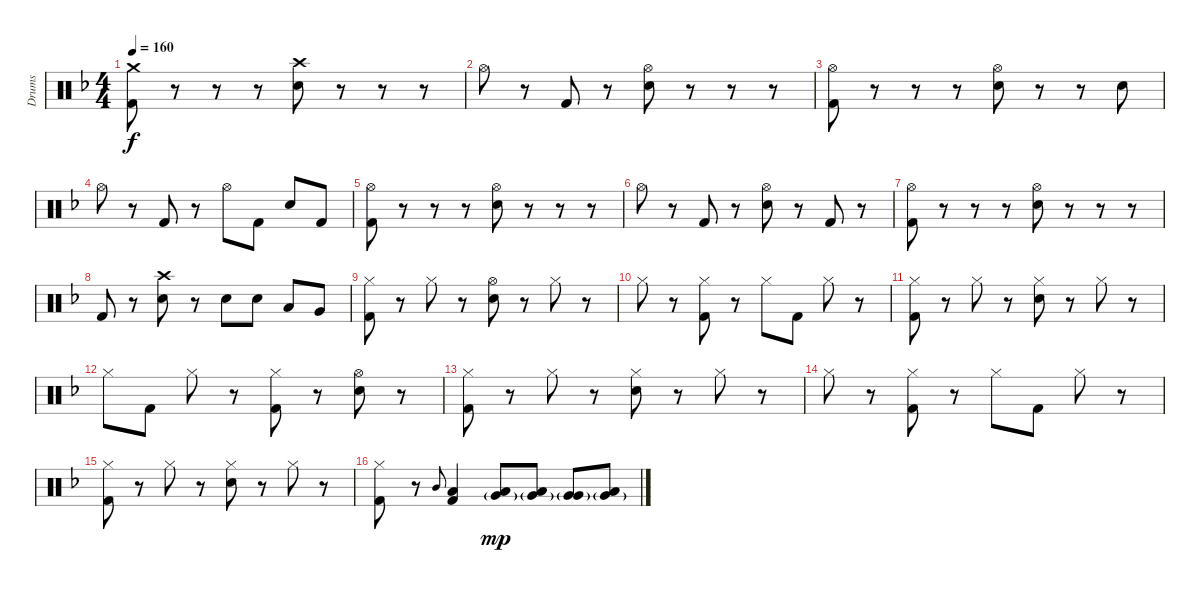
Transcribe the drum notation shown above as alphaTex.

\track ("Drums" "Drums") {instrument percussion}
\staff {score}
\articulation defaults
\ts (4 4)
\tempo 160
\clef neutral
\ks dminor
("Crash medium (hit)" "Kick (hit) 2").8{dy f} r.8 r.8 r.8 ("Crash high (hit)" "Electric Snare (hit)").8 r.8 r.8 r.8 |
"Hi-Hat (open)".8 r.8 "Kick (hit) 2".8 r.8 ("Hi-Hat (open)" "Electric Snare (hit)").8 r.8 r.8 r.8 |
("Hi-Hat (open)" "Kick (hit) 2").8 r.8 r.8 r.8 ("Hi-Hat (open)" "Electric Snare (hit)").8 r.8 r.8 "Electric Snare (hit)".8 |
"Hi-Hat (open)".8 r.8 "Kick (hit) 2".8 r.8 "Hi-Hat (open)".8 "Kick (hit) 2".8 "Electric Snare (hit)".8 "Kick (hit) 2".8 |
("Hi-Hat (open)" "Kick (hit) 2").8 r.8 r.8 r.8 ("Hi-Hat (open)" "Electric Snare (hit)").8 r.8 r.8 r.8 |
"Hi-Hat (open)".8 r.8 "Kick (hit) 2".8 r.8 ("Hi-Hat (open)" "Electric Snare (hit)").8 r.8 "Kick (hit) 2".8 r.8 |
("Hi-Hat (open)" "Kick (hit) 2").8 r.8 r.8 r.8 ("Hi-Hat (open)" "Electric Snare (hit)").8 r.8 r.8 r.8 |
"Kick (hit) 2".8 r.8 ("Crash high (hit)" "Electric Snare (hit)").8 r.8 "Electric Snare (hit)".8 "Electric Snare (hit)".8 "Low Tom (hit)".8 "Very Low Tom (hit)".8 |
("Hi-Hat (closed)" "Kick (hit) 2").8 r.8 "Hi-Hat (closed)".8 r.8 ("Hi-Hat (open)" "Electric Snare (hit)").8 r.8 "Hi-Hat (closed)".8 r.8 |
"Hi-Hat (closed)".8 r.8 ("Hi-Hat (closed)" "Kick (hit) 2").8 r.8 "Hi-Hat (closed)".8 "Kick (hit) 2".8 "Hi-Hat (closed)".8 r.8 |
("Hi-Hat (closed)" "Kick (hit) 2").8 r.8 "Hi-Hat (closed)".8 r.8 ("Hi-Hat (closed)" "Electric Snare (hit)").8 r.8 "Hi-Hat (closed)".8 r.8 |
"Hi-Hat (closed)".8 "Kick (hit) 2".8 "Hi-Hat (closed)".8 r.8 ("Hi-Hat (closed)" "Kick (hit) 2").8 r.8 ("Hi-Hat (open)" "Electric Snare (hit)").8 r.8 |
("Hi-Hat (closed)" "Kick (hit) 2").8 r.8 "Hi-Hat (closed)".8 r.8 ("Hi-Hat (closed)" "Electric Snare (hit)").8 r.8 "Hi-Hat (closed)".8 r.8 |
"Hi-Hat (closed)".8 r.8 ("Hi-Hat (closed)" "Kick (hit) 2").8 r.8 "Hi-Hat (closed)".8 "Kick (hit) 2".8 "Hi-Hat (closed)".8 r.8 |
("Hi-Hat (closed)" "Kick (hit) 2").8 r.8 "Hi-Hat (closed)".8 r.8 ("Hi-Hat (closed)" "Electric Snare (hit)").8 r.8 "Hi-Hat (closed)".8 r.8 |
("Hi-Hat (closed)" "Kick (hit) 2").8 r.8 "Mid Tom (hit)".8{gr onbeat} ("Low Tom (hit)" "Kick (hit) 2").4 ("Low Tom (hit)" "Very Low Tom (hit)"{g}).8{dy mp} ("Low Tom (hit)" "Very Low Tom (hit)"{g}).8 ("Very Low Tom (hit)" "Very Low Tom (hit)"{g}).8 ("Low Floor Tom (hit)" "Very Low Tom (hit)"{g}).8
